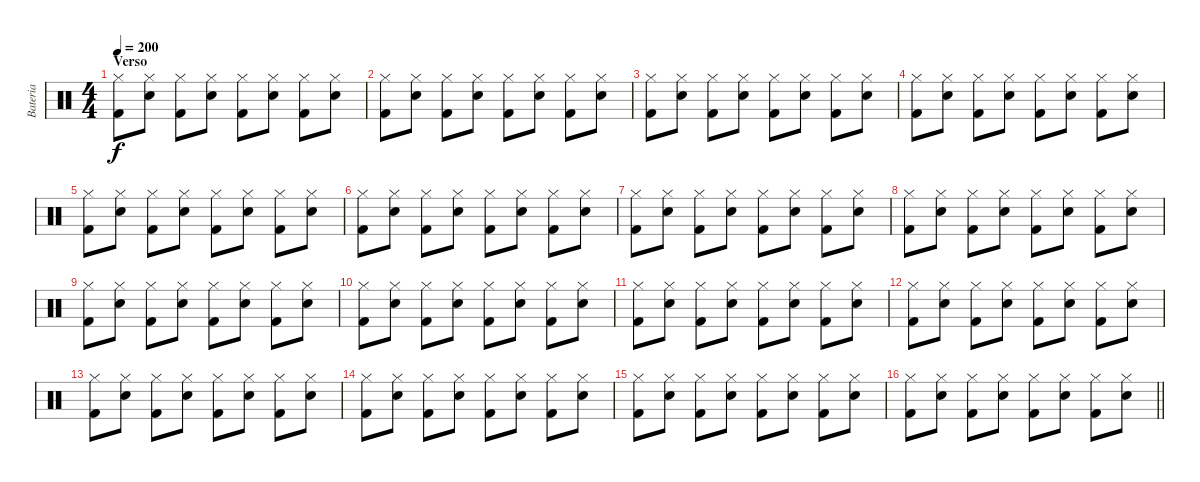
\track ("Bateria" "Bateria") {instrument percussion}
\staff {score}
\articulation defaults
\ts (4 4)
\section ("" "Verso")
\tempo 200
\clef neutral
\ks c
("Hi-Hat (closed)" "Kick (hit) 2").8{dy f} ("Hi-Hat (closed)" "Snare (hit) 2").8 ("Hi-Hat (closed)" "Kick (hit) 2").8 ("Hi-Hat (closed)" "Snare (hit) 2").8 ("Hi-Hat (closed)" "Kick (hit) 2").8 ("Hi-Hat (closed)" "Snare (hit) 2").8 ("Hi-Hat (closed)" "Kick (hit) 2").8 ("Hi-Hat (closed)" "Snare (hit) 2").8 |
("Hi-Hat (closed)" "Kick (hit) 2").8 ("Hi-Hat (closed)" "Snare (hit) 2").8 ("Hi-Hat (closed)" "Kick (hit) 2").8 ("Hi-Hat (closed)" "Snare (hit) 2").8 ("Hi-Hat (closed)" "Kick (hit) 2").8 ("Hi-Hat (closed)" "Snare (hit) 2").8 ("Hi-Hat (closed)" "Kick (hit) 2").8 ("Hi-Hat (closed)" "Snare (hit) 2").8 |
("Hi-Hat (closed)" "Kick (hit) 2").8 ("Hi-Hat (closed)" "Snare (hit) 2").8 ("Hi-Hat (closed)" "Kick (hit) 2").8 ("Hi-Hat (closed)" "Snare (hit) 2").8 ("Hi-Hat (closed)" "Kick (hit) 2").8 ("Hi-Hat (closed)" "Snare (hit) 2").8 ("Hi-Hat (closed)" "Kick (hit) 2").8 ("Hi-Hat (closed)" "Snare (hit) 2").8 |
("Hi-Hat (closed)" "Kick (hit) 2").8 ("Hi-Hat (closed)" "Snare (hit) 2").8 ("Hi-Hat (closed)" "Kick (hit) 2").8 ("Hi-Hat (closed)" "Snare (hit) 2").8 ("Hi-Hat (closed)" "Kick (hit) 2").8 ("Hi-Hat (closed)" "Snare (hit) 2").8 ("Hi-Hat (closed)" "Kick (hit) 2").8 ("Hi-Hat (closed)" "Snare (hit) 2").8 |
("Hi-Hat (closed)" "Kick (hit) 2").8 ("Hi-Hat (closed)" "Snare (hit) 2").8 ("Hi-Hat (closed)" "Kick (hit) 2").8 ("Hi-Hat (closed)" "Snare (hit) 2").8 ("Hi-Hat (closed)" "Kick (hit) 2").8 ("Hi-Hat (closed)" "Snare (hit) 2").8 ("Hi-Hat (closed)" "Kick (hit) 2").8 ("Hi-Hat (closed)" "Snare (hit) 2").8 |
("Hi-Hat (closed)" "Kick (hit) 2").8 ("Hi-Hat (closed)" "Snare (hit) 2").8 ("Hi-Hat (closed)" "Kick (hit) 2").8 ("Hi-Hat (closed)" "Snare (hit) 2").8 ("Hi-Hat (closed)" "Kick (hit) 2").8 ("Hi-Hat (closed)" "Snare (hit) 2").8 ("Hi-Hat (closed)" "Kick (hit) 2").8 ("Hi-Hat (closed)" "Snare (hit) 2").8 |
("Hi-Hat (closed)" "Kick (hit) 2").8 ("Hi-Hat (closed)" "Snare (hit) 2").8 ("Hi-Hat (closed)" "Kick (hit) 2").8 ("Hi-Hat (closed)" "Snare (hit) 2").8 ("Hi-Hat (closed)" "Kick (hit) 2").8 ("Hi-Hat (closed)" "Snare (hit) 2").8 ("Hi-Hat (closed)" "Kick (hit) 2").8 ("Hi-Hat (closed)" "Snare (hit) 2").8 |
("Hi-Hat (closed)" "Kick (hit) 2").8 ("Hi-Hat (closed)" "Snare (hit) 2").8 ("Hi-Hat (closed)" "Kick (hit) 2").8 ("Hi-Hat (closed)" "Snare (hit) 2").8 ("Hi-Hat (closed)" "Kick (hit) 2").8 ("Hi-Hat (closed)" "Snare (hit) 2").8 ("Hi-Hat (closed)" "Kick (hit) 2").8 ("Hi-Hat (closed)" "Snare (hit) 2").8 |
("Hi-Hat (closed)" "Kick (hit) 2").8 ("Hi-Hat (closed)" "Snare (hit) 2").8 ("Hi-Hat (closed)" "Kick (hit) 2").8 ("Hi-Hat (closed)" "Snare (hit) 2").8 ("Hi-Hat (closed)" "Kick (hit) 2").8 ("Hi-Hat (closed)" "Snare (hit) 2").8 ("Hi-Hat (closed)" "Kick (hit) 2").8 ("Hi-Hat (closed)" "Snare (hit) 2").8 |
("Hi-Hat (closed)" "Kick (hit) 2").8 ("Hi-Hat (closed)" "Snare (hit) 2").8 ("Hi-Hat (closed)" "Kick (hit) 2").8 ("Hi-Hat (closed)" "Snare (hit) 2").8 ("Hi-Hat (closed)" "Kick (hit) 2").8 ("Hi-Hat (closed)" "Snare (hit) 2").8 ("Hi-Hat (closed)" "Kick (hit) 2").8 ("Hi-Hat (closed)" "Snare (hit) 2").8 |
("Hi-Hat (closed)" "Kick (hit) 2").8 ("Hi-Hat (closed)" "Snare (hit) 2").8 ("Hi-Hat (closed)" "Kick (hit) 2").8 ("Hi-Hat (closed)" "Snare (hit) 2").8 ("Hi-Hat (closed)" "Kick (hit) 2").8 ("Hi-Hat (closed)" "Snare (hit) 2").8 ("Hi-Hat (closed)" "Kick (hit) 2").8 ("Hi-Hat (closed)" "Snare (hit) 2").8 |
("Hi-Hat (closed)" "Kick (hit) 2").8 ("Hi-Hat (closed)" "Snare (hit) 2").8 ("Hi-Hat (closed)" "Kick (hit) 2").8 ("Hi-Hat (closed)" "Snare (hit) 2").8 ("Hi-Hat (closed)" "Kick (hit) 2").8 ("Hi-Hat (closed)" "Snare (hit) 2").8 ("Hi-Hat (closed)" "Kick (hit) 2").8 ("Hi-Hat (closed)" "Snare (hit) 2").8 |
("Hi-Hat (closed)" "Kick (hit) 2").8 ("Hi-Hat (closed)" "Snare (hit) 2").8 ("Hi-Hat (closed)" "Kick (hit) 2").8 ("Hi-Hat (closed)" "Snare (hit) 2").8 ("Hi-Hat (closed)" "Kick (hit) 2").8 ("Hi-Hat (closed)" "Snare (hit) 2").8 ("Hi-Hat (closed)" "Kick (hit) 2").8 ("Hi-Hat (closed)" "Snare (hit) 2").8 |
("Hi-Hat (closed)" "Kick (hit) 2").8 ("Hi-Hat (closed)" "Snare (hit) 2").8 ("Hi-Hat (closed)" "Kick (hit) 2").8 ("Hi-Hat (closed)" "Snare (hit) 2").8 ("Hi-Hat (closed)" "Kick (hit) 2").8 ("Hi-Hat (closed)" "Snare (hit) 2").8 ("Hi-Hat (closed)" "Kick (hit) 2").8 ("Hi-Hat (closed)" "Snare (hit) 2").8 |
("Hi-Hat (closed)" "Kick (hit) 2").8 ("Hi-Hat (closed)" "Snare (hit) 2").8 ("Hi-Hat (closed)" "Kick (hit) 2").8 ("Hi-Hat (closed)" "Snare (hit) 2").8 ("Hi-Hat (closed)" "Kick (hit) 2").8 ("Hi-Hat (closed)" "Snare (hit) 2").8 ("Hi-Hat (closed)" "Kick (hit) 2").8 ("Hi-Hat (closed)" "Snare (hit) 2").8 |
\barLineRight lightlight
("Hi-Hat (closed)" "Kick (hit) 2").8 ("Hi-Hat (closed)" "Snare (hit) 2").8 ("Hi-Hat (closed)" "Kick (hit) 2").8 ("Hi-Hat (closed)" "Snare (hit) 2").8 ("Hi-Hat (closed)" "Kick (hit) 2").8 ("Hi-Hat (closed)" "Snare (hit) 2").8 ("Hi-Hat (closed)" "Kick (hit) 2").8 ("Hi-Hat (closed)" "Snare (hit) 2").8
